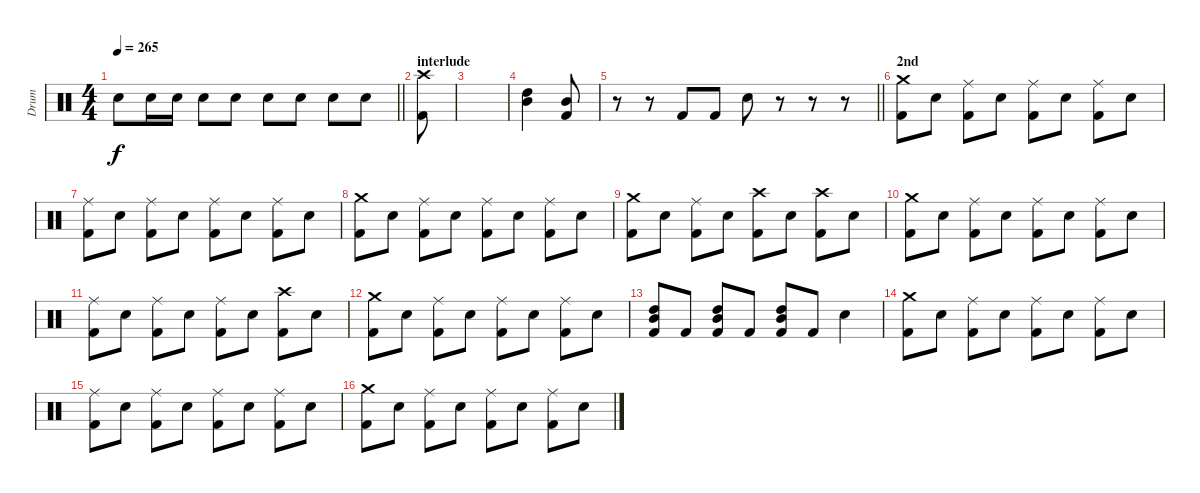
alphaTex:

\track ("Drum" "Drum") {instrument percussion}
\staff {score}
\articulation defaults
\ts (4 4)
\tempo 265
\clef neutral
\barLineRight lightlight
\ks c "Snare (hit) 2".8{dy f} "Snare (hit) 2".16 "Snare (hit) 2".16 "Snare (hit) 2".8 "Snare (hit) 2".8 "Snare (hit) 2".8 "Snare (hit) 2".8 "Snare (hit) 2".8 "Snare (hit) 2".8
|
\section ("" "interlude")
("Crash high (hit)" "Kick (hit) 2").8 |
|
("Mid Tom (hit)" "High Tom (hit)").4 ("Mid Tom (hit)" "Kick (hit) 2").8 |
\barLineRight lightlight
r.8 r.8 "Kick (hit) 2".8 "Kick (hit) 2".8 "Snare (hit) 2".8 r.8 r.8 r.8 |
\section ("" "2nd")
("Crash medium (hit)" "Kick (hit) 2").8 "Snare (hit) 2".8 ("Ride (middle)" "Kick (hit) 2").8 "Snare (hit) 2".8 ("Ride (middle)" "Kick (hit) 2").8 "Snare (hit) 2".8 ("Ride (middle)" "Kick (hit) 2").8 "Snare (hit) 2".8 |
("Ride (middle)" "Kick (hit) 2").8 "Snare (hit) 2".8 ("Ride (middle)" "Kick (hit) 2").8 "Snare (hit) 2".8 ("Ride (middle)" "Kick (hit) 2").8 "Snare (hit) 2".8 ("Ride (middle)" "Kick (hit) 2").8 "Snare (hit) 2".8 |
("Crash medium (hit)" "Kick (hit) 2").8 "Snare (hit) 2".8 ("Ride (middle)" "Kick (hit) 2").8 "Snare (hit) 2".8 ("Ride (middle)" "Kick (hit) 2").8 "Snare (hit) 2".8 ("Ride (middle)" "Kick (hit) 2").8 "Snare (hit) 2".8 |
("Crash medium (hit)" "Kick (hit) 2").8 "Snare (hit) 2".8 ("Ride (middle)" "Kick (hit) 2").8 "Snare (hit) 2".8 ("Crash high (hit)" "Kick (hit) 2").8 "Snare (hit) 2".8 ("Crash high (hit)" "Kick (hit) 2").8 "Snare (hit) 2".8 |
("Crash medium (hit)" "Kick (hit) 2").8 "Snare (hit) 2".8 ("Ride (middle)" "Kick (hit) 2").8 "Snare (hit) 2".8 ("Ride (middle)" "Kick (hit) 2").8 "Snare (hit) 2".8 ("Ride (middle)" "Kick (hit) 2").8 "Snare (hit) 2".8 |
("Ride (middle)" "Kick (hit) 2").8 "Snare (hit) 2".8 ("Ride (middle)" "Kick (hit) 2").8 "Snare (hit) 2".8 ("Ride (middle)" "Kick (hit) 2").8 "Snare (hit) 2".8 ("Crash high (hit)" "Kick (hit) 2").8 "Snare (hit) 2".8 |
("Crash medium (hit)" "Kick (hit) 2").8 "Snare (hit) 2".8 ("Ride (middle)" "Kick (hit) 2").8 "Snare (hit) 2".8 ("Ride (middle)" "Kick (hit) 2").8 "Snare (hit) 2".8 ("Ride (middle)" "Kick (hit) 2").8 "Snare (hit) 2".8 |
("Mid Tom (hit)" "High Tom (hit)" "Kick (hit) 2").8 "Kick (hit) 2".8 ("Mid Tom (hit)" "High Tom (hit)" "Kick (hit) 2").8 "Kick (hit) 2".8 ("Mid Tom (hit)" "High Tom (hit)" "Kick (hit) 2").8 "Kick (hit) 2".8 "Snare (hit) 2".4 |
("Crash medium (hit)" "Kick (hit) 2").8 "Snare (hit) 2".8 ("Ride (middle)" "Kick (hit) 2").8 "Snare (hit) 2".8 ("Ride (middle)" "Kick (hit) 2").8 "Snare (hit) 2".8 ("Ride (middle)" "Kick (hit) 2").8 "Snare (hit) 2".8 |
("Ride (middle)" "Kick (hit) 2").8 "Snare (hit) 2".8 ("Ride (middle)" "Kick (hit) 2").8 "Snare (hit) 2".8 ("Ride (middle)" "Kick (hit) 2").8 "Snare (hit) 2".8 ("Ride (middle)" "Kick (hit) 2").8 "Snare (hit) 2".8 |
("Crash medium (hit)" "Kick (hit) 2").8 "Snare (hit) 2".8 ("Ride (middle)" "Kick (hit) 2").8 "Snare (hit) 2".8 ("Ride (middle)" "Kick (hit) 2").8 "Snare (hit) 2".8 ("Ride (middle)" "Kick (hit) 2").8 "Snare (hit) 2".8
